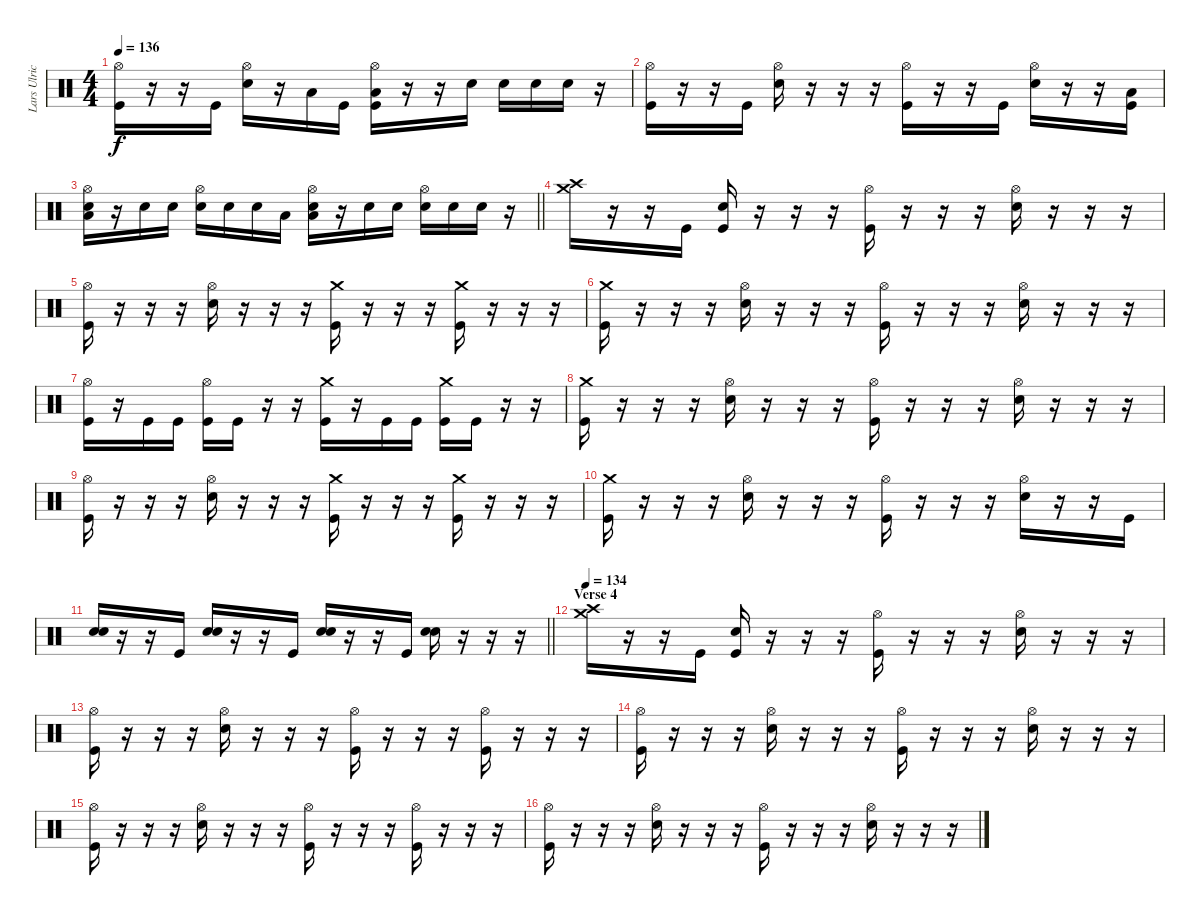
\track ("Lars Ulrich" "Lars Ulric") {instrument percussion}
\staff {score}
\articulation defaults
\ts (4 4)
\tempo 136
\clef neutral
\ks c
("Hi-Hat (open)" "Kick (hit)").16{dy f} r.16 r.16 "Kick (hit)".16 ("Hi-Hat (open)" "Snare (hit) 2").16 r.16 "Low Floor Tom (hit)".16 "Kick (hit)".16 ("Hi-Hat (open)" "Kick (hit)" "Low Floor Tom (hit)").16 r.16 r.16 "Snare (hit) 2".16 "Snare (hit) 2".16 "Snare (hit) 2".16 "Snare (hit) 2".16 r.16 |
("Hi-Hat (open)" "Kick (hit)").16 r.16 r.16 "Kick (hit)".16 ("Hi-Hat (open)" "Snare (hit) 2").16 r.16 r.16 r.16 ("Hi-Hat (open)" "Kick (hit)").16 r.16 r.16 "Kick (hit)".16 ("Hi-Hat (open)" "Snare (hit) 2").16 r.16 r.16 ("Kick (hit)" "Low Floor Tom (hit)").16 |
\barLineRight lightlight
("Hi-Hat (open)" "Snare (hit) 2" "Low Floor Tom (hit)").16 r.16 "Snare (hit) 2".16 "Snare (hit) 2".16 ("Hi-Hat (open)" "Snare (hit) 2").16 "Snare (hit) 2".16 "Snare (hit) 2".16 "Low Floor Tom (hit)".16 ("Hi-Hat (open)" "Snare (hit) 2" "Low Floor Tom (hit)").16 r.16 "Snare (hit) 2".16 "Snare (hit) 2".16 ("Hi-Hat (open)" "Snare (hit) 2").16 "Snare (hit) 2".16 "Snare (hit) 2".16 r.16 |
("Crash medium (hit)" "Crash high (hit)").16 r.16 r.16 "Kick (hit)".16 ("Kick (hit)" "Snare (hit) 2").16 r.16 r.16 r.16 ("Hi-Hat (open)" "Kick (hit)").16 r.16 r.16 r.16 ("Hi-Hat (open)" "Snare (hit) 2").16 r.16 r.16 r.16 |
("Hi-Hat (open)" "Kick (hit)").16 r.16 r.16 r.16 ("Hi-Hat (open)" "Snare (hit) 2").16 r.16 r.16 r.16 ("Crash medium (hit)" "Kick (hit)").16 r.16 r.16 r.16 ("Crash medium (hit)" "Kick (hit)").16 r.16 r.16 r.16 |
("Crash medium (hit)" "Kick (hit)").16 r.16 r.16 r.16 ("Hi-Hat (open)" "Snare (hit) 2").16 r.16 r.16 r.16 ("Hi-Hat (open)" "Kick (hit)").16 r.16 r.16 r.16 ("Hi-Hat (open)" "Snare (hit) 2").16 r.16 r.16 r.16 |
("Hi-Hat (open)" "Kick (hit)").16 r.16 "Kick (hit)".16 "Kick (hit)".16 ("Hi-Hat (open)" "Kick (hit)").16 "Kick (hit)".16 r.16 r.16 ("Crash medium (hit)" "Kick (hit)").16 r.16 "Kick (hit)".16 "Kick (hit)".16 ("Crash medium (hit)" "Kick (hit)").16 "Kick (hit)".16 r.16 r.16 |
("Crash medium (hit)" "Kick (hit)").16 r.16 r.16 r.16 ("Hi-Hat (open)" "Snare (hit) 2").16 r.16 r.16 r.16 ("Hi-Hat (open)" "Kick (hit)").16 r.16 r.16 r.16 ("Hi-Hat (open)" "Snare (hit) 2").16 r.16 r.16 r.16 |
("Hi-Hat (open)" "Kick (hit)").16 r.16 r.16 r.16 ("Hi-Hat (open)" "Snare (hit) 2").16 r.16 r.16 r.16 ("Crash medium (hit)" "Kick (hit)").16 r.16 r.16 r.16 ("Crash medium (hit)" "Kick (hit)").16 r.16 r.16 r.16 |
("Crash medium (hit)" "Kick (hit)").16 r.16 r.16 r.16 ("Hi-Hat (open)" "Snare (hit) 2").16 r.16 r.16 r.16 ("Hi-Hat (open)" "Kick (hit)").16 r.16 r.16 r.16 ("Hi-Hat (open)" "Snare (hit) 2").16 r.16 r.16 "Kick (hit)".16 |
\barLineRight lightlight
("Snare (hit) 2" "Snare (hit) 2").16 r.16 r.16 "Kick (hit)".16 ("Snare (hit) 2" "Snare (hit) 2").16 r.16 r.16 "Kick (hit)".16 ("Snare (hit) 2" "Snare (hit) 2").16 r.16 r.16 "Kick (hit)".16 ("Snare (hit) 2" "Snare (hit) 2").16 r.16 r.16 r.16 |
\section ("" "Verse 4")
\tempo 134
("Crash medium (hit)" "Crash high (hit)").16 r.16 r.16 "Kick (hit)".16 ("Kick (hit)" "Snare (hit) 2").16 r.16 r.16 r.16 ("Hi-Hat (open)" "Kick (hit)").16 r.16 r.16 r.16 ("Hi-Hat (open)" "Snare (hit) 2").16 r.16 r.16 r.16 |
("Hi-Hat (open)" "Kick (hit)").16 r.16 r.16 r.16 ("Hi-Hat (open)" "Snare (hit) 2").16 r.16 r.16 r.16 ("Hi-Hat (open)" "Kick (hit)").16 r.16 r.16 r.16 ("Hi-Hat (open)" "Kick (hit)").16 r.16 r.16 r.16 |
("Hi-Hat (open)" "Kick (hit)").16 r.16 r.16 r.16 ("Hi-Hat (open)" "Snare (hit) 2").16 r.16 r.16 r.16 ("Hi-Hat (open)" "Kick (hit)").16 r.16 r.16 r.16 ("Hi-Hat (open)" "Snare (hit) 2").16 r.16 r.16 r.16 |
("Hi-Hat (open)" "Kick (hit)").16 r.16 r.16 r.16 ("Hi-Hat (open)" "Snare (hit) 2").16 r.16 r.16 r.16 ("Hi-Hat (open)" "Kick (hit)").16 r.16 r.16 r.16 ("Hi-Hat (open)" "Kick (hit)").16 r.16 r.16 r.16 |
("Hi-Hat (open)" "Kick (hit)").16 r.16 r.16 r.16 ("Hi-Hat (open)" "Snare (hit) 2").16 r.16 r.16 r.16 ("Hi-Hat (open)" "Kick (hit)").16 r.16 r.16 r.16 ("Hi-Hat (open)" "Snare (hit) 2").16 r.16 r.16 r.16
